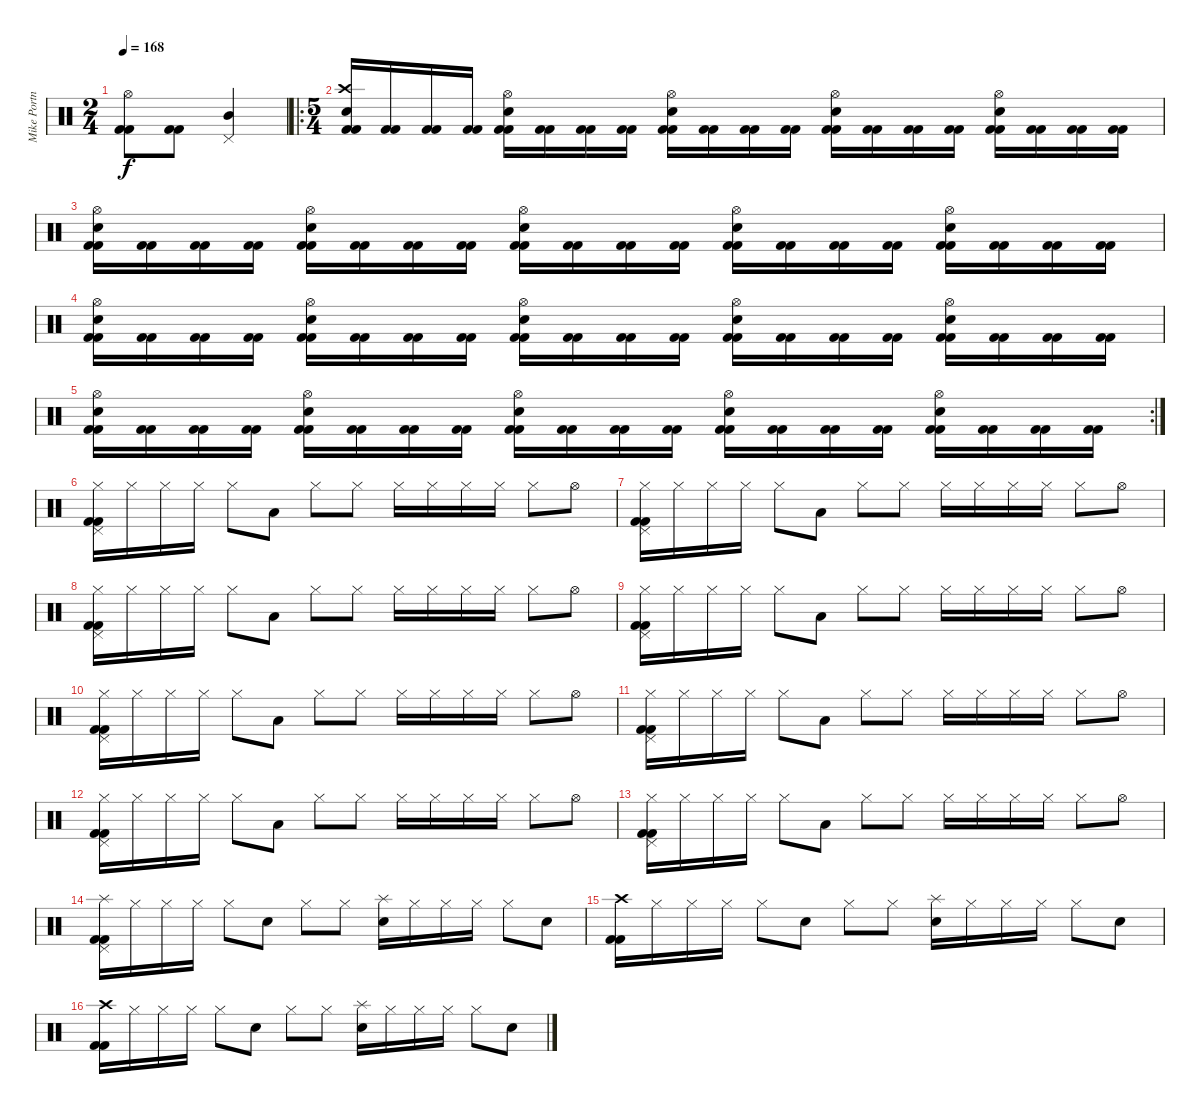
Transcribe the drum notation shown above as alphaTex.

\track ("Mike Portnoy - Drum" "Mike Portn") {instrument percussion}
\staff {score}
\articulation defaults
\ts (2 4)
\tempo 168
\clef neutral
\ks c
("Hi-Hat (open)" "Kick (hit) 2" "Kick (hit) 2").8{dy f} ("Kick (hit) 2" "Kick (hit) 2").8 ("Mid Tom (hit)" "Pedal Hi-Hat (hit)").4 |
\ro
\ts (5 4)
("Crash high (hit)" "Snare (hit) 2" "Kick (hit) 2" "Kick (hit) 2").16 ("Kick (hit) 2" "Kick (hit) 2").16 ("Kick (hit) 2" "Kick (hit) 2").16 ("Kick (hit) 2" "Kick (hit) 2").16 ("Hi-Hat (open)" "Snare (hit) 2" "Kick (hit) 2" "Kick (hit) 2").16 ("Kick (hit) 2" "Kick (hit) 2").16 ("Kick (hit) 2" "Kick (hit) 2").16 ("Kick (hit) 2" "Kick (hit) 2").16 ("Hi-Hat (open)" "Snare (hit) 2" "Kick (hit) 2" "Kick (hit) 2").16 ("Kick (hit) 2" "Kick (hit) 2").16 ("Kick (hit) 2" "Kick (hit) 2").16 ("Kick (hit) 2" "Kick (hit) 2").16 ("Hi-Hat (open)" "Snare (hit) 2" "Kick (hit) 2" "Kick (hit) 2").16 ("Kick (hit) 2" "Kick (hit) 2").16 ("Kick (hit) 2" "Kick (hit) 2").16 ("Kick (hit) 2" "Kick (hit) 2").16 ("Hi-Hat (open)" "Snare (hit) 2" "Kick (hit) 2" "Kick (hit) 2").16 ("Kick (hit) 2" "Kick (hit) 2").16 ("Kick (hit) 2" "Kick (hit) 2").16 ("Kick (hit) 2" "Kick (hit) 2").16 |
("Hi-Hat (open)" "Snare (hit) 2" "Kick (hit) 2" "Kick (hit) 2").16 ("Kick (hit) 2" "Kick (hit) 2").16 ("Kick (hit) 2" "Kick (hit) 2").16 ("Kick (hit) 2" "Kick (hit) 2").16 ("Hi-Hat (open)" "Snare (hit) 2" "Kick (hit) 2" "Kick (hit) 2").16 ("Kick (hit) 2" "Kick (hit) 2").16 ("Kick (hit) 2" "Kick (hit) 2").16 ("Kick (hit) 2" "Kick (hit) 2").16 ("Hi-Hat (open)" "Snare (hit) 2" "Kick (hit) 2" "Kick (hit) 2").16 ("Kick (hit) 2" "Kick (hit) 2").16 ("Kick (hit) 2" "Kick (hit) 2").16 ("Kick (hit) 2" "Kick (hit) 2").16 ("Hi-Hat (open)" "Snare (hit) 2" "Kick (hit) 2" "Kick (hit) 2").16 ("Kick (hit) 2" "Kick (hit) 2").16 ("Kick (hit) 2" "Kick (hit) 2").16 ("Kick (hit) 2" "Kick (hit) 2").16 ("Hi-Hat (open)" "Snare (hit) 2" "Kick (hit) 2" "Kick (hit) 2").16 ("Kick (hit) 2" "Kick (hit) 2").16 ("Kick (hit) 2" "Kick (hit) 2").16 ("Kick (hit) 2" "Kick (hit) 2").16 |
("Hi-Hat (open)" "Snare (hit) 2" "Kick (hit) 2" "Kick (hit) 2").16 ("Kick (hit) 2" "Kick (hit) 2").16 ("Kick (hit) 2" "Kick (hit) 2").16 ("Kick (hit) 2" "Kick (hit) 2").16 ("Hi-Hat (open)" "Snare (hit) 2" "Kick (hit) 2" "Kick (hit) 2").16 ("Kick (hit) 2" "Kick (hit) 2").16 ("Kick (hit) 2" "Kick (hit) 2").16 ("Kick (hit) 2" "Kick (hit) 2").16 ("Hi-Hat (open)" "Snare (hit) 2" "Kick (hit) 2" "Kick (hit) 2").16 ("Kick (hit) 2" "Kick (hit) 2").16 ("Kick (hit) 2" "Kick (hit) 2").16 ("Kick (hit) 2" "Kick (hit) 2").16 ("Hi-Hat (open)" "Snare (hit) 2" "Kick (hit) 2" "Kick (hit) 2").16 ("Kick (hit) 2" "Kick (hit) 2").16 ("Kick (hit) 2" "Kick (hit) 2").16 ("Kick (hit) 2" "Kick (hit) 2").16 ("Hi-Hat (open)" "Snare (hit) 2" "Kick (hit) 2" "Kick (hit) 2").16 ("Kick (hit) 2" "Kick (hit) 2").16 ("Kick (hit) 2" "Kick (hit) 2").16 ("Kick (hit) 2" "Kick (hit) 2").16 |
\rc 2
("Hi-Hat (open)" "Snare (hit) 2" "Kick (hit) 2" "Kick (hit) 2").16 ("Kick (hit) 2" "Kick (hit) 2").16 ("Kick (hit) 2" "Kick (hit) 2").16 ("Kick (hit) 2" "Kick (hit) 2").16 ("Hi-Hat (open)" "Snare (hit) 2" "Kick (hit) 2" "Kick (hit) 2").16 ("Kick (hit) 2" "Kick (hit) 2").16 ("Kick (hit) 2" "Kick (hit) 2").16 ("Kick (hit) 2" "Kick (hit) 2").16 ("Hi-Hat (open)" "Snare (hit) 2" "Kick (hit) 2" "Kick (hit) 2").16 ("Kick (hit) 2" "Kick (hit) 2").16 ("Kick (hit) 2" "Kick (hit) 2").16 ("Kick (hit) 2" "Kick (hit) 2").16 ("Hi-Hat (open)" "Snare (hit) 2" "Kick (hit) 2" "Kick (hit) 2").16 ("Kick (hit) 2" "Kick (hit) 2").16 ("Kick (hit) 2" "Kick (hit) 2").16 ("Kick (hit) 2" "Kick (hit) 2").16 ("Hi-Hat (open)" "Snare (hit) 2" "Kick (hit) 2" "Kick (hit) 2").16 ("Kick (hit) 2" "Kick (hit) 2").16 ("Kick (hit) 2" "Kick (hit) 2").16 ("Kick (hit) 2" "Kick (hit) 2").16 |
("Hi-Hat (closed)" "Pedal Hi-Hat (hit)" "Kick (hit) 2" "Kick (hit) 2").16 "Hi-Hat (closed)".16 "Hi-Hat (closed)".16 "Hi-Hat (closed)".16 "Hi-Hat (closed)".8 "Low Tom (hit)".8 "Hi-Hat (closed)".8 "Hi-Hat (closed)".8 "Hi-Hat (closed)".16 "Hi-Hat (closed)".16 "Hi-Hat (closed)".16 "Hi-Hat (closed)".16 "Hi-Hat (closed)".8 "Hi-Hat (open)".8 |
("Hi-Hat (closed)" "Pedal Hi-Hat (hit)" "Kick (hit) 2" "Kick (hit) 2").16 "Hi-Hat (closed)".16 "Hi-Hat (closed)".16 "Hi-Hat (closed)".16 "Hi-Hat (closed)".8 "Low Tom (hit)".8 "Hi-Hat (closed)".8 "Hi-Hat (closed)".8 "Hi-Hat (closed)".16 "Hi-Hat (closed)".16 "Hi-Hat (closed)".16 "Hi-Hat (closed)".16 "Hi-Hat (closed)".8 "Hi-Hat (open)".8 |
("Hi-Hat (closed)" "Pedal Hi-Hat (hit)" "Kick (hit) 2" "Kick (hit) 2").16 "Hi-Hat (closed)".16 "Hi-Hat (closed)".16 "Hi-Hat (closed)".16 "Hi-Hat (closed)".8 "Low Tom (hit)".8 "Hi-Hat (closed)".8 "Hi-Hat (closed)".8 "Hi-Hat (closed)".16 "Hi-Hat (closed)".16 "Hi-Hat (closed)".16 "Hi-Hat (closed)".16 "Hi-Hat (closed)".8 "Hi-Hat (open)".8 |
("Hi-Hat (closed)" "Pedal Hi-Hat (hit)" "Kick (hit) 2" "Kick (hit) 2").16 "Hi-Hat (closed)".16 "Hi-Hat (closed)".16 "Hi-Hat (closed)".16 "Hi-Hat (closed)".8 "Low Tom (hit)".8 "Hi-Hat (closed)".8 "Hi-Hat (closed)".8 "Hi-Hat (closed)".16 "Hi-Hat (closed)".16 "Hi-Hat (closed)".16 "Hi-Hat (closed)".16 "Hi-Hat (closed)".8 "Hi-Hat (open)".8 |
("Hi-Hat (closed)" "Pedal Hi-Hat (hit)" "Kick (hit) 2" "Kick (hit) 2").16 "Hi-Hat (closed)".16 "Hi-Hat (closed)".16 "Hi-Hat (closed)".16 "Hi-Hat (closed)".8 "Low Tom (hit)".8 "Hi-Hat (closed)".8 "Hi-Hat (closed)".8 "Hi-Hat (closed)".16 "Hi-Hat (closed)".16 "Hi-Hat (closed)".16 "Hi-Hat (closed)".16 "Hi-Hat (closed)".8 "Hi-Hat (open)".8 |
("Hi-Hat (closed)" "Pedal Hi-Hat (hit)" "Kick (hit) 2" "Kick (hit) 2").16 "Hi-Hat (closed)".16 "Hi-Hat (closed)".16 "Hi-Hat (closed)".16 "Hi-Hat (closed)".8 "Low Tom (hit)".8 "Hi-Hat (closed)".8 "Hi-Hat (closed)".8 "Hi-Hat (closed)".16 "Hi-Hat (closed)".16 "Hi-Hat (closed)".16 "Hi-Hat (closed)".16 "Hi-Hat (closed)".8 "Hi-Hat (open)".8 |
("Hi-Hat (closed)" "Pedal Hi-Hat (hit)" "Kick (hit) 2" "Kick (hit) 2").16 "Hi-Hat (closed)".16 "Hi-Hat (closed)".16 "Hi-Hat (closed)".16 "Hi-Hat (closed)".8 "Low Tom (hit)".8 "Hi-Hat (closed)".8 "Hi-Hat (closed)".8 "Hi-Hat (closed)".16 "Hi-Hat (closed)".16 "Hi-Hat (closed)".16 "Hi-Hat (closed)".16 "Hi-Hat (closed)".8 "Hi-Hat (open)".8 |
("Hi-Hat (closed)" "Pedal Hi-Hat (hit)" "Kick (hit) 2" "Kick (hit) 2").16 "Hi-Hat (closed)".16 "Hi-Hat (closed)".16 "Hi-Hat (closed)".16 "Hi-Hat (closed)".8 "Low Tom (hit)".8 "Hi-Hat (closed)".8 "Hi-Hat (closed)".8 "Hi-Hat (closed)".16 "Hi-Hat (closed)".16 "Hi-Hat (closed)".16 "Hi-Hat (closed)".16 "Hi-Hat (closed)".8 "Hi-Hat (open)".8 |
("Splash (hit)" "Pedal Hi-Hat (hit)" "Kick (hit) 2" "Kick (hit) 2").16 "Hi-Hat (closed)".16 "Hi-Hat (closed)".16 "Hi-Hat (closed)".16 "Hi-Hat (closed)".8 "Snare (hit) 2".8 "Hi-Hat (closed)".8 "Hi-Hat (closed)".8 ("Splash (hit)" "Snare (hit) 2").16 "Hi-Hat (closed)".16 "Hi-Hat (closed)".16 "Hi-Hat (closed)".16 "Hi-Hat (closed)".8 "Snare (hit) 2".8 |
("Crash high (hit)" "Kick (hit) 2" "Kick (hit) 2").16 "Hi-Hat (closed)".16 "Hi-Hat (closed)".16 "Hi-Hat (closed)".16 "Hi-Hat (closed)".8 "Snare (hit) 2".8 "Hi-Hat (closed)".8 "Hi-Hat (closed)".8 ("Splash (hit)" "Snare (hit) 2").16 "Hi-Hat (closed)".16 "Hi-Hat (closed)".16 "Hi-Hat (closed)".16 "Hi-Hat (closed)".8 "Snare (hit) 2".8 |
("Crash high (hit)" "Kick (hit) 2" "Kick (hit) 2").16 "Hi-Hat (closed)".16 "Hi-Hat (closed)".16 "Hi-Hat (closed)".16 "Hi-Hat (closed)".8 "Snare (hit) 2".8 "Hi-Hat (closed)".8 "Hi-Hat (closed)".8 ("Splash (hit)" "Snare (hit) 2").16 "Hi-Hat (closed)".16 "Hi-Hat (closed)".16 "Hi-Hat (closed)".16 "Hi-Hat (closed)".8 "Snare (hit) 2".8
